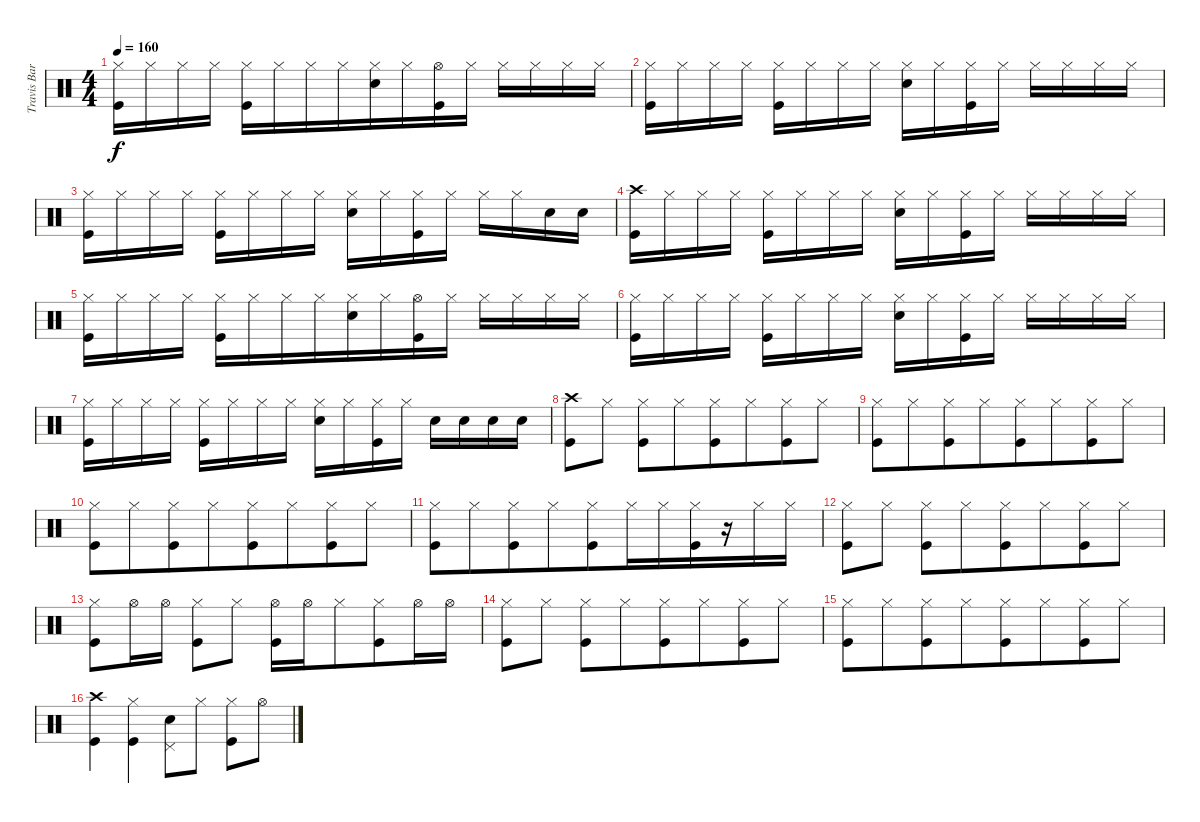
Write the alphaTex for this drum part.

\track ("Travis Barker Drums" "Travis Bar") {instrument percussion}
\staff {score}
\articulation defaults
\ts (4 4)
\tempo 160
\clef neutral
\ks c
("Hi-Hat (closed)" "Kick (hit)").16{dy f} "Hi-Hat (closed)".16{beam merge} "Hi-Hat (closed)".16 "Hi-Hat (closed)".16 ("Hi-Hat (closed)" "Kick (hit)").16 "Hi-Hat (closed)".16{beam merge} "Hi-Hat (closed)".16 "Hi-Hat (closed)".16{beam merge} ("Hi-Hat (closed)" "Snare (hit) 2").16{beam merge} "Hi-Hat (closed)".16 ("Hi-Hat (open)" "Kick (hit)").16{beam merge} "Hi-Hat (closed)".16 "Hi-Hat (closed)".16{beam merge} "Hi-Hat (closed)".16{beam merge} "Hi-Hat (closed)".16{beam merge} "Hi-Hat (closed)".16 |
("Hi-Hat (closed)" "Kick (hit)").16{beam merge} "Hi-Hat (closed)".16{beam merge} "Hi-Hat (closed)".16{beam merge} "Hi-Hat (closed)".16 ("Hi-Hat (closed)" "Kick (hit)").16 "Hi-Hat (closed)".16{beam merge} "Hi-Hat (closed)".16{beam merge} "Hi-Hat (closed)".16 ("Hi-Hat (closed)" "Snare (hit) 2").16 "Hi-Hat (closed)".16{beam merge} ("Hi-Hat (closed)" "Kick (hit)").16 "Hi-Hat (closed)".16 "Hi-Hat (closed)".16 "Hi-Hat (closed)".16{beam merge} "Hi-Hat (closed)".16 "Hi-Hat (closed)".16 |
("Hi-Hat (closed)" "Kick (hit)").16 "Hi-Hat (closed)".16{beam merge} "Hi-Hat (closed)".16 "Hi-Hat (closed)".16 ("Hi-Hat (closed)" "Kick (hit)").16 "Hi-Hat (closed)".16{beam merge} "Hi-Hat (closed)".16 "Hi-Hat (closed)".16 ("Hi-Hat (closed)" "Snare (hit) 2").16 "Hi-Hat (closed)".16 ("Hi-Hat (closed)" "Kick (hit)").16 "Hi-Hat (closed)".16 "Hi-Hat (closed)".16{beam merge} "Hi-Hat (closed)".16 "Snare (hit) 2".16 "Snare (hit) 2".16 |
("Crash high (hit)" "Kick (hit)").16 "Hi-Hat (closed)".16{beam merge} "Hi-Hat (closed)".16 "Hi-Hat (closed)".16 ("Hi-Hat (closed)" "Kick (hit)").16 "Hi-Hat (closed)".16{beam merge} "Hi-Hat (closed)".16 "Hi-Hat (closed)".16 ("Hi-Hat (closed)" "Snare (hit) 2").16 "Hi-Hat (closed)".16 ("Hi-Hat (closed)" "Kick (hit)").16 "Hi-Hat (closed)".16 "Hi-Hat (closed)".16{beam merge} "Hi-Hat (closed)".16 "Hi-Hat (closed)".16 "Hi-Hat (closed)".16 |
("Hi-Hat (closed)" "Kick (hit)").16 "Hi-Hat (closed)".16{beam merge} "Hi-Hat (closed)".16 "Hi-Hat (closed)".16 ("Hi-Hat (closed)" "Kick (hit)").16 "Hi-Hat (closed)".16{beam merge} "Hi-Hat (closed)".16 "Hi-Hat (closed)".16{beam merge} ("Hi-Hat (closed)" "Snare (hit) 2").16{beam merge} "Hi-Hat (closed)".16 ("Hi-Hat (open)" "Kick (hit)").16{beam merge} "Hi-Hat (closed)".16 "Hi-Hat (closed)".16{beam merge} "Hi-Hat (closed)".16{beam merge} "Hi-Hat (closed)".16{beam merge} "Hi-Hat (closed)".16 |
("Hi-Hat (closed)" "Kick (hit)").16{beam merge} "Hi-Hat (closed)".16{beam merge} "Hi-Hat (closed)".16{beam merge} "Hi-Hat (closed)".16 ("Hi-Hat (closed)" "Kick (hit)").16 "Hi-Hat (closed)".16{beam merge} "Hi-Hat (closed)".16{beam merge} "Hi-Hat (closed)".16 ("Hi-Hat (closed)" "Snare (hit) 2").16 "Hi-Hat (closed)".16 ("Hi-Hat (closed)" "Kick (hit)").16 "Hi-Hat (closed)".16 "Hi-Hat (closed)".16{beam merge} "Hi-Hat (closed)".16 "Hi-Hat (closed)".16 "Hi-Hat (closed)".16 |
("Hi-Hat (closed)" "Kick (hit)").16 "Hi-Hat (closed)".16{beam merge} "Hi-Hat (closed)".16 "Hi-Hat (closed)".16 ("Hi-Hat (closed)" "Kick (hit)").16 "Hi-Hat (closed)".16{beam merge} "Hi-Hat (closed)".16 "Hi-Hat (closed)".16 ("Hi-Hat (closed)" "Snare (hit) 2").16 "Hi-Hat (closed)".16 ("Hi-Hat (closed)" "Kick (hit)").16 "Hi-Hat (closed)".16 "Snare (hit) 2".16{beam merge} "Snare (hit) 2".16 "Snare (hit) 2".16 "Snare (hit) 2".16 |
("Crash high (hit)" "Kick (hit)").8{beam merge} "Hi-Hat (closed)".8 ("Kick (hit)" "Hi-Hat (closed)").8 "Hi-Hat (closed)".8{beam merge} ("Kick (hit)" "Hi-Hat (closed)").8 "Hi-Hat (closed)".8{beam merge} ("Kick (hit)" "Hi-Hat (closed)").8 "Hi-Hat (closed)".8 |
("Kick (hit)" "Hi-Hat (closed)").8 "Hi-Hat (closed)".8{beam merge} ("Kick (hit)" "Hi-Hat (closed)").8 "Hi-Hat (closed)".8{beam merge} ("Kick (hit)" "Hi-Hat (closed)").8 "Hi-Hat (closed)".8{beam merge} ("Kick (hit)" "Hi-Hat (closed)").8 "Hi-Hat (closed)".8 |
("Kick (hit)" "Hi-Hat (closed)").8 "Hi-Hat (closed)".8{beam merge} ("Kick (hit)" "Hi-Hat (closed)").8 "Hi-Hat (closed)".8{beam merge} ("Kick (hit)" "Hi-Hat (closed)").8 "Hi-Hat (closed)".8{beam merge} ("Kick (hit)" "Hi-Hat (closed)").8 "Hi-Hat (closed)".8 |
("Kick (hit)" "Hi-Hat (closed)").8 "Hi-Hat (closed)".8{beam merge} ("Kick (hit)" "Hi-Hat (closed)").8 "Hi-Hat (closed)".8{beam merge} ("Kick (hit)" "Hi-Hat (closed)").8 "Hi-Hat (closed)".16 "Hi-Hat (closed)".16{beam merge} ("Kick (hit)" "Hi-Hat (closed)").16 r.16 "Hi-Hat (closed)".16 "Hi-Hat (closed)".16 |
("Hi-Hat (closed)" "Kick (hit)").8{beam merge} "Hi-Hat (closed)".8 ("Kick (hit)" "Hi-Hat (closed)").8 "Hi-Hat (closed)".8{beam merge} ("Kick (hit)" "Hi-Hat (closed)").8 "Hi-Hat (closed)".8{beam merge} ("Kick (hit)" "Hi-Hat (closed)").8 "Hi-Hat (closed)".8 |
("Kick (hit)" "Hi-Hat (closed)").8 "Hi-Hat (open)".16{beam merge} "Hi-Hat (open)".16 ("Kick (hit)" "Hi-Hat (closed)").8 "Hi-Hat (closed)".8 ("Kick (hit)" "Hi-Hat (open)").16 "Hi-Hat (open)".16 "Hi-Hat (closed)".8{beam merge} ("Kick (hit)" "Hi-Hat (closed)").8{beam merge} "Hi-Hat (open)".16 "Hi-Hat (open)".16 |
("Hi-Hat (closed)" "Kick (hit)").8{beam merge} "Hi-Hat (closed)".8 ("Kick (hit)" "Hi-Hat (closed)").8 "Hi-Hat (closed)".8{beam merge} ("Kick (hit)" "Hi-Hat (closed)").8 "Hi-Hat (closed)".8{beam merge} ("Kick (hit)" "Hi-Hat (closed)").8 "Hi-Hat (closed)".8 |
("Kick (hit)" "Hi-Hat (closed)").8 "Hi-Hat (closed)".8{beam merge} ("Kick (hit)" "Hi-Hat (closed)").8 "Hi-Hat (closed)".8{beam merge} ("Kick (hit)" "Hi-Hat (closed)").8 "Hi-Hat (closed)".8{beam merge} ("Kick (hit)" "Hi-Hat (closed)").8 "Hi-Hat (closed)".8 |
("Kick (hit)" "Crash high (hit)").4 ("Hi-Hat (closed)" "Kick (hit)").4{beam merge} ("Pedal Hi-Hat (hit)" "Snare (hit) 2").8{beam merge} "Hi-Hat (closed)".8 ("Hi-Hat (closed)" "Kick (hit)").8 "Hi-Hat (open)".8
